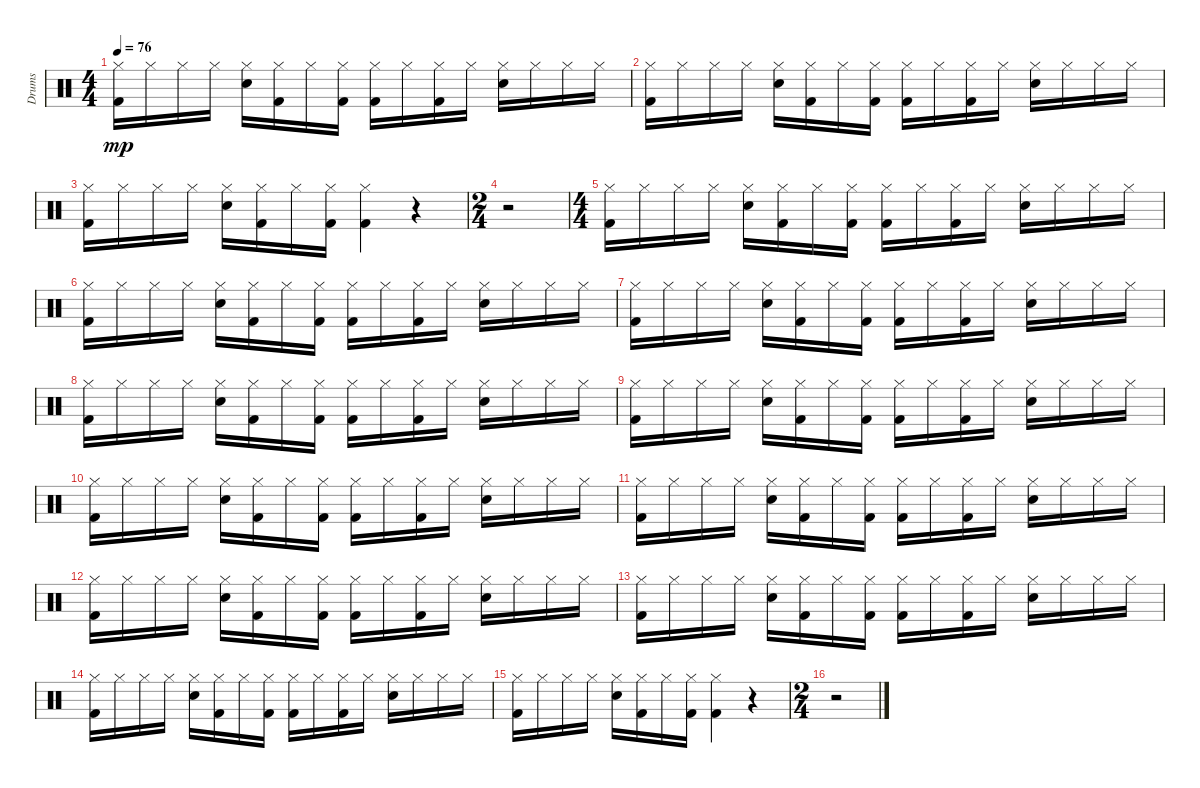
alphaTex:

\track ("Drums" "Drums") {instrument percussion}
\staff {score}
\articulation defaults
\ts (4 4)
\tempo 76
\clef neutral
\ks c
("Hi-Hat (closed)" "Kick (hit) 2").16{dy mp} "Hi-Hat (closed)".16 "Hi-Hat (closed)".16 "Hi-Hat (closed)".16 ("Hi-Hat (closed)" "Snare (hit) 2").16 ("Hi-Hat (closed)" "Kick (hit) 2").16 "Hi-Hat (closed)".16 ("Hi-Hat (closed)" "Kick (hit) 2").16 ("Hi-Hat (closed)" "Kick (hit) 2").16 "Hi-Hat (closed)".16 ("Hi-Hat (closed)" "Kick (hit) 2").16 "Hi-Hat (closed)".16 ("Snare (hit) 2" "Hi-Hat (closed)").16 "Hi-Hat (closed)".16 "Hi-Hat (closed)".16 "Hi-Hat (closed)".16 |
("Hi-Hat (closed)" "Kick (hit) 2").16 "Hi-Hat (closed)".16 "Hi-Hat (closed)".16 "Hi-Hat (closed)".16 ("Hi-Hat (closed)" "Snare (hit) 2").16 ("Hi-Hat (closed)" "Kick (hit) 2").16 "Hi-Hat (closed)".16 ("Hi-Hat (closed)" "Kick (hit) 2").16 ("Hi-Hat (closed)" "Kick (hit) 2").16 "Hi-Hat (closed)".16 ("Hi-Hat (closed)" "Kick (hit) 2").16 "Hi-Hat (closed)".16 ("Snare (hit) 2" "Hi-Hat (closed)").16 "Hi-Hat (closed)".16 "Hi-Hat (closed)".16 "Hi-Hat (closed)".16 |
("Hi-Hat (closed)" "Kick (hit) 2").16 "Hi-Hat (closed)".16 "Hi-Hat (closed)".16 "Hi-Hat (closed)".16 ("Hi-Hat (closed)" "Snare (hit) 2").16 ("Hi-Hat (closed)" "Kick (hit) 2").16 "Hi-Hat (closed)".16 ("Hi-Hat (closed)" "Kick (hit) 2").16 ("Hi-Hat (closed)" "Kick (hit) 2").4 r.4 |
\ts (2 4)
r.2 |
\ts (4 4)
("Hi-Hat (closed)" "Kick (hit) 2").16 "Hi-Hat (closed)".16 "Hi-Hat (closed)".16 "Hi-Hat (closed)".16 ("Hi-Hat (closed)" "Snare (hit) 2").16 ("Hi-Hat (closed)" "Kick (hit) 2").16 "Hi-Hat (closed)".16 ("Hi-Hat (closed)" "Kick (hit) 2").16 ("Hi-Hat (closed)" "Kick (hit) 2").16 "Hi-Hat (closed)".16 ("Hi-Hat (closed)" "Kick (hit) 2").16 "Hi-Hat (closed)".16 ("Snare (hit) 2" "Hi-Hat (closed)").16 "Hi-Hat (closed)".16 "Hi-Hat (closed)".16 "Hi-Hat (closed)".16 |
("Hi-Hat (closed)" "Kick (hit) 2").16 "Hi-Hat (closed)".16 "Hi-Hat (closed)".16 "Hi-Hat (closed)".16 ("Hi-Hat (closed)" "Snare (hit) 2").16 ("Hi-Hat (closed)" "Kick (hit) 2").16 "Hi-Hat (closed)".16 ("Hi-Hat (closed)" "Kick (hit) 2").16 ("Hi-Hat (closed)" "Kick (hit) 2").16 "Hi-Hat (closed)".16 ("Hi-Hat (closed)" "Kick (hit) 2").16 "Hi-Hat (closed)".16 ("Snare (hit) 2" "Hi-Hat (closed)").16 "Hi-Hat (closed)".16 "Hi-Hat (closed)".16 "Hi-Hat (closed)".16 |
("Hi-Hat (closed)" "Kick (hit) 2").16 "Hi-Hat (closed)".16 "Hi-Hat (closed)".16 "Hi-Hat (closed)".16 ("Hi-Hat (closed)" "Snare (hit) 2").16 ("Hi-Hat (closed)" "Kick (hit) 2").16 "Hi-Hat (closed)".16 ("Hi-Hat (closed)" "Kick (hit) 2").16 ("Hi-Hat (closed)" "Kick (hit) 2").16 "Hi-Hat (closed)".16 ("Hi-Hat (closed)" "Kick (hit) 2").16 "Hi-Hat (closed)".16 ("Snare (hit) 2" "Hi-Hat (closed)").16 "Hi-Hat (closed)".16 "Hi-Hat (closed)".16 "Hi-Hat (closed)".16 |
("Hi-Hat (closed)" "Kick (hit) 2").16 "Hi-Hat (closed)".16 "Hi-Hat (closed)".16 "Hi-Hat (closed)".16 ("Hi-Hat (closed)" "Snare (hit) 2").16 ("Hi-Hat (closed)" "Kick (hit) 2").16 "Hi-Hat (closed)".16 ("Hi-Hat (closed)" "Kick (hit) 2").16 ("Hi-Hat (closed)" "Kick (hit) 2").16 "Hi-Hat (closed)".16 ("Hi-Hat (closed)" "Kick (hit) 2").16 "Hi-Hat (closed)".16 ("Snare (hit) 2" "Hi-Hat (closed)").16 "Hi-Hat (closed)".16 "Hi-Hat (closed)".16 "Hi-Hat (closed)".16 |
("Hi-Hat (closed)" "Kick (hit) 2").16 "Hi-Hat (closed)".16 "Hi-Hat (closed)".16 "Hi-Hat (closed)".16 ("Hi-Hat (closed)" "Snare (hit) 2").16 ("Hi-Hat (closed)" "Kick (hit) 2").16 "Hi-Hat (closed)".16 ("Hi-Hat (closed)" "Kick (hit) 2").16 ("Hi-Hat (closed)" "Kick (hit) 2").16 "Hi-Hat (closed)".16 ("Hi-Hat (closed)" "Kick (hit) 2").16 "Hi-Hat (closed)".16 ("Snare (hit) 2" "Hi-Hat (closed)").16 "Hi-Hat (closed)".16 "Hi-Hat (closed)".16 "Hi-Hat (closed)".16 |
("Hi-Hat (closed)" "Kick (hit) 2").16 "Hi-Hat (closed)".16 "Hi-Hat (closed)".16 "Hi-Hat (closed)".16 ("Hi-Hat (closed)" "Snare (hit) 2").16 ("Hi-Hat (closed)" "Kick (hit) 2").16 "Hi-Hat (closed)".16 ("Hi-Hat (closed)" "Kick (hit) 2").16 ("Hi-Hat (closed)" "Kick (hit) 2").16 "Hi-Hat (closed)".16 ("Hi-Hat (closed)" "Kick (hit) 2").16 "Hi-Hat (closed)".16 ("Snare (hit) 2" "Hi-Hat (closed)").16 "Hi-Hat (closed)".16 "Hi-Hat (closed)".16 "Hi-Hat (closed)".16 |
("Hi-Hat (closed)" "Kick (hit) 2").16 "Hi-Hat (closed)".16 "Hi-Hat (closed)".16 "Hi-Hat (closed)".16 ("Hi-Hat (closed)" "Snare (hit) 2").16 ("Hi-Hat (closed)" "Kick (hit) 2").16 "Hi-Hat (closed)".16 ("Hi-Hat (closed)" "Kick (hit) 2").16 ("Hi-Hat (closed)" "Kick (hit) 2").16 "Hi-Hat (closed)".16 ("Hi-Hat (closed)" "Kick (hit) 2").16 "Hi-Hat (closed)".16 ("Snare (hit) 2" "Hi-Hat (closed)").16 "Hi-Hat (closed)".16 "Hi-Hat (closed)".16 "Hi-Hat (closed)".16 |
("Hi-Hat (closed)" "Kick (hit) 2").16 "Hi-Hat (closed)".16 "Hi-Hat (closed)".16 "Hi-Hat (closed)".16 ("Hi-Hat (closed)" "Snare (hit) 2").16 ("Hi-Hat (closed)" "Kick (hit) 2").16 "Hi-Hat (closed)".16 ("Hi-Hat (closed)" "Kick (hit) 2").16 ("Hi-Hat (closed)" "Kick (hit) 2").16 "Hi-Hat (closed)".16 ("Hi-Hat (closed)" "Kick (hit) 2").16 "Hi-Hat (closed)".16 ("Snare (hit) 2" "Hi-Hat (closed)").16 "Hi-Hat (closed)".16 "Hi-Hat (closed)".16 "Hi-Hat (closed)".16 |
("Hi-Hat (closed)" "Kick (hit) 2").16 "Hi-Hat (closed)".16 "Hi-Hat (closed)".16 "Hi-Hat (closed)".16 ("Hi-Hat (closed)" "Snare (hit) 2").16 ("Hi-Hat (closed)" "Kick (hit) 2").16 "Hi-Hat (closed)".16 ("Hi-Hat (closed)" "Kick (hit) 2").16 ("Hi-Hat (closed)" "Kick (hit) 2").16 "Hi-Hat (closed)".16 ("Hi-Hat (closed)" "Kick (hit) 2").16 "Hi-Hat (closed)".16 ("Snare (hit) 2" "Hi-Hat (closed)").16 "Hi-Hat (closed)".16 "Hi-Hat (closed)".16 "Hi-Hat (closed)".16 |
("Hi-Hat (closed)" "Kick (hit) 2").16 "Hi-Hat (closed)".16 "Hi-Hat (closed)".16 "Hi-Hat (closed)".16 ("Hi-Hat (closed)" "Snare (hit) 2").16 ("Hi-Hat (closed)" "Kick (hit) 2").16 "Hi-Hat (closed)".16 ("Hi-Hat (closed)" "Kick (hit) 2").16 ("Hi-Hat (closed)" "Kick (hit) 2").16 "Hi-Hat (closed)".16 ("Hi-Hat (closed)" "Kick (hit) 2").16 "Hi-Hat (closed)".16 ("Snare (hit) 2" "Hi-Hat (closed)").16 "Hi-Hat (closed)".16 "Hi-Hat (closed)".16 "Hi-Hat (closed)".16 |
("Hi-Hat (closed)" "Kick (hit) 2").16 "Hi-Hat (closed)".16 "Hi-Hat (closed)".16 "Hi-Hat (closed)".16 ("Hi-Hat (closed)" "Snare (hit) 2").16 ("Hi-Hat (closed)" "Kick (hit) 2").16 "Hi-Hat (closed)".16 ("Hi-Hat (closed)" "Kick (hit) 2").16 ("Hi-Hat (closed)" "Kick (hit) 2").4 r.4 |
\ts (2 4)
r.2
